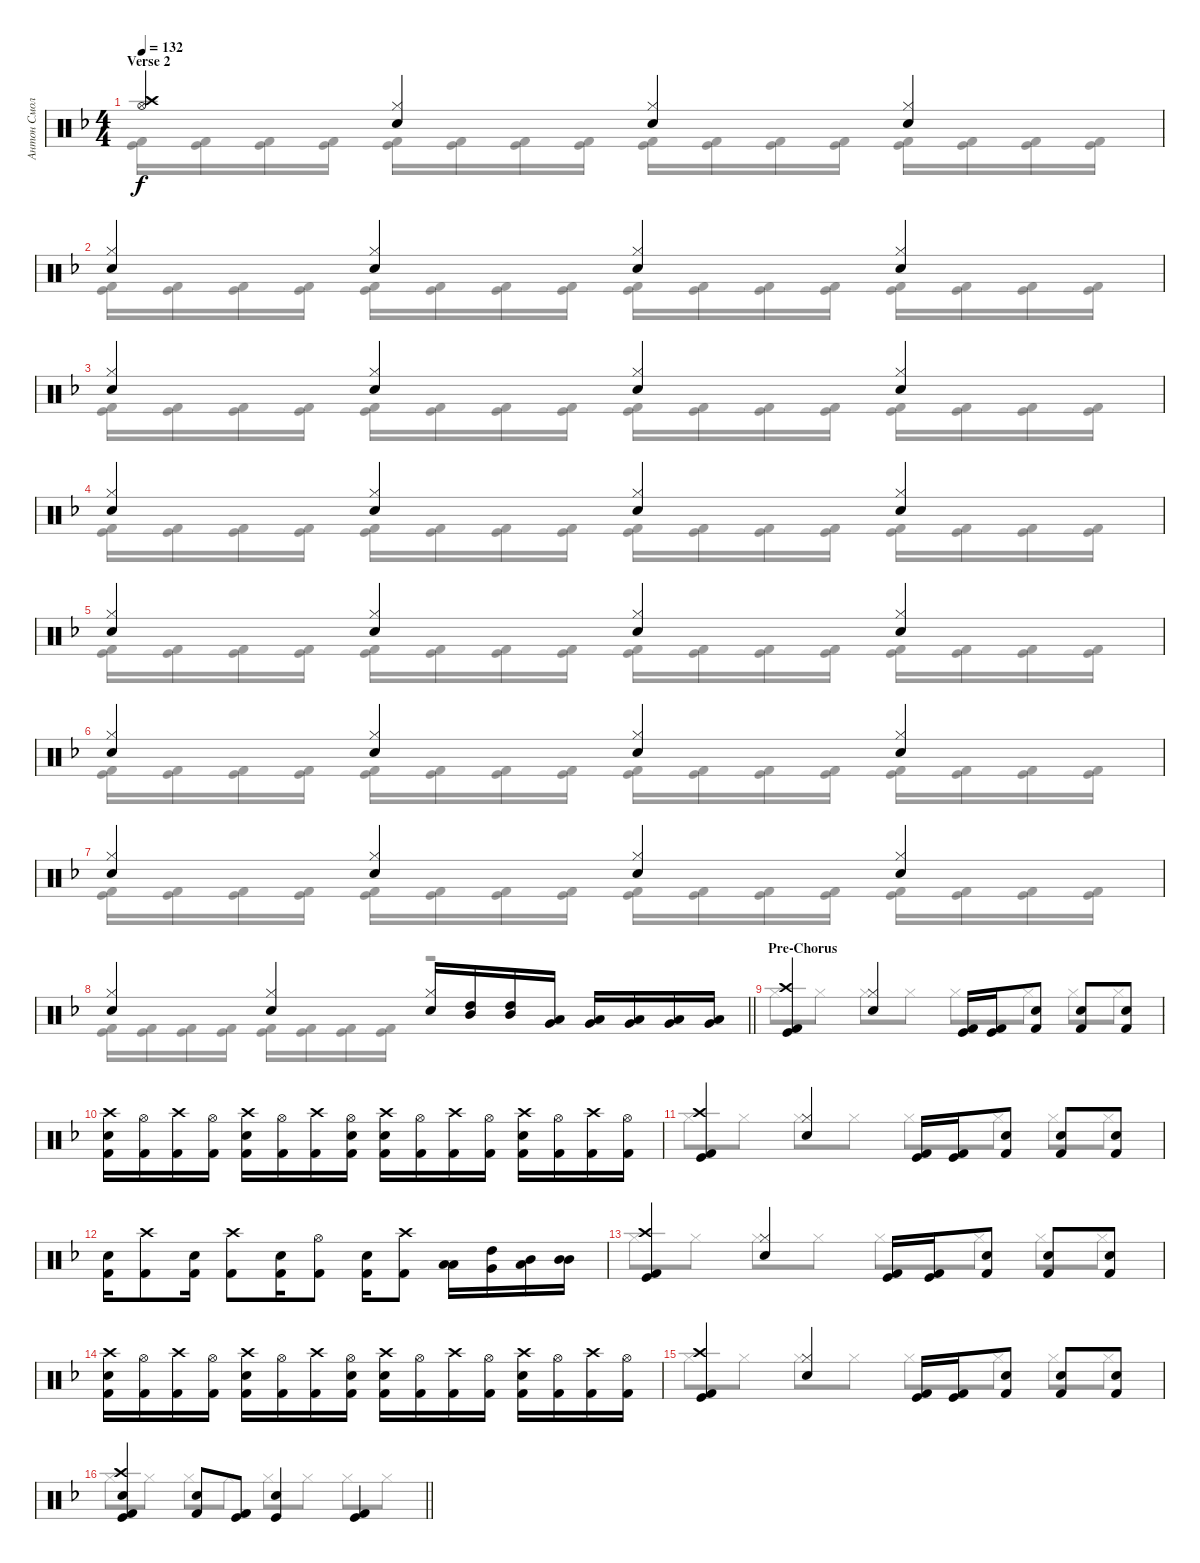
\track ("Антон Смольянин" "Антон Смол") {instrument percussion}
\staff {score}
\articulation defaults
\voice
\ts (4 4)
\section ("" "Verse 2")
\tempo 132
\clef neutral
\ks f
("Hi-Hat (open)" "Crash high (hit)").4{dy f} ("Hi-Hat (closed)" "Snare (hit) 2").4 ("Hi-Hat (closed)" "Snare (hit) 2").4 ("Hi-Hat (closed)" "Snare (hit) 2").4 |
("Hi-Hat (closed)" "Snare (hit) 2").4 ("Hi-Hat (closed)" "Snare (hit) 2").4 ("Hi-Hat (closed)" "Snare (hit) 2").4 ("Hi-Hat (closed)" "Snare (hit) 2").4 |
("Hi-Hat (closed)" "Snare (hit) 2").4 ("Hi-Hat (closed)" "Snare (hit) 2").4 ("Hi-Hat (closed)" "Snare (hit) 2").4 ("Hi-Hat (closed)" "Snare (hit) 2").4 |
("Hi-Hat (closed)" "Snare (hit) 2").4 ("Hi-Hat (closed)" "Snare (hit) 2").4 ("Hi-Hat (closed)" "Snare (hit) 2").4 ("Hi-Hat (closed)" "Snare (hit) 2").4 |
("Hi-Hat (closed)" "Snare (hit) 2").4 ("Hi-Hat (closed)" "Snare (hit) 2").4 ("Hi-Hat (closed)" "Snare (hit) 2").4 ("Hi-Hat (closed)" "Snare (hit) 2").4 |
("Hi-Hat (closed)" "Snare (hit) 2").4 ("Hi-Hat (closed)" "Snare (hit) 2").4 ("Hi-Hat (closed)" "Snare (hit) 2").4 ("Hi-Hat (closed)" "Snare (hit) 2").4 |
("Hi-Hat (closed)" "Snare (hit) 2").4 ("Hi-Hat (closed)" "Snare (hit) 2").4 ("Hi-Hat (closed)" "Snare (hit) 2").4 ("Hi-Hat (closed)" "Snare (hit) 2").4 |
\barLineRight lightlight
("Hi-Hat (closed)" "Snare (hit) 2").4 ("Hi-Hat (closed)" "Snare (hit) 2").4 ("Hi-Hat (closed)" "Snare (hit) 2").16 ("High Tom (hit)" "Mid Tom (hit)").16 ("Mid Tom (hit)" "High Tom (hit)").16 ("Low Tom (hit)" "Very Low Tom (hit)").16 ("Very Low Tom (hit)" "Low Tom (hit)").16 ("Very Low Tom (hit)" "Low Tom (hit)").16 ("Low Floor Tom (hit)" "Very Low Tom (hit)").16 ("Very Low Tom (hit)" "Low Tom (hit)").16 |
\section ("" "Pre-Chorus")
("Kick (hit) 2" "Kick (hit)" "Crash high (hit)").4 ("Hi-Hat (closed)" "Snare (hit) 2").4 ("Kick (hit) 2" "Kick (hit)").16 ("Kick (hit) 2" "Kick (hit)").16 ("Kick (hit) 2" "Snare (hit) 2").8 ("Kick (hit) 2" "Snare (hit) 2").8 ("Kick (hit) 2" "Snare (hit) 2").8 |
("Kick (hit) 2" "Snare (hit) 2" "Crash high (hit)").16 ("Kick (hit) 2" "Hi-Hat (open)").16 ("Kick (hit) 2" "Crash high (hit)").16 ("Kick (hit) 2" "Hi-Hat (open)").16 ("Kick (hit) 2" "Snare (hit) 2" "Crash high (hit)").16 ("Kick (hit) 2" "Hi-Hat (open)").16 ("Kick (hit) 2" "Crash high (hit)").16 ("Kick (hit) 2" "Snare (hit) 2" "Hi-Hat (open)").16 ("Kick (hit) 2" "Snare (hit) 2" "Crash high (hit)").16 ("Kick (hit) 2" "Hi-Hat (open)").16 ("Kick (hit) 2" "Crash high (hit)").16 ("Kick (hit) 2" "Hi-Hat (open)").16 ("Kick (hit) 2" "Snare (hit) 2" "Crash high (hit)").16 ("Kick (hit) 2" "Hi-Hat (open)").16 ("Kick (hit) 2" "Crash high (hit)").16 ("Kick (hit) 2" "Hi-Hat (open)").16 |
("Kick (hit) 2" "Kick (hit)" "Crash high (hit)").4 ("Hi-Hat (closed)" "Snare (hit) 2").4 ("Kick (hit) 2" "Kick (hit)").16 ("Kick (hit) 2" "Kick (hit)").16 ("Kick (hit) 2" "Snare (hit) 2").8 ("Kick (hit) 2" "Snare (hit) 2").8 ("Kick (hit) 2" "Snare (hit) 2").8 |
("Kick (hit) 2" "Snare (hit) 2").16 ("Kick (hit) 2" "Crash high (hit)").8 ("Kick (hit) 2" "Snare (hit) 2").16 ("Kick (hit) 2" "Crash high (hit)").8 ("Kick (hit) 2" "Snare (hit) 2").16 ("Kick (hit) 2" "Hi-Hat (open)").8 ("Kick (hit) 2" "Snare (hit) 2").16 ("Kick (hit) 2" "Crash high (hit)").8 ("Low Tom (hit)" "Low Floor Tom (hit)").16 ("High Tom (hit)" "Very Low Tom (hit)").16 ("Mid Tom (hit)" "Low Floor Tom (hit)").16 ("Mid Tom (hit)" "Mid Tom (hit)").16 |
("Kick (hit) 2" "Kick (hit)" "Crash high (hit)").4 ("Hi-Hat (closed)" "Snare (hit) 2").4 ("Kick (hit) 2" "Kick (hit)").16 ("Kick (hit) 2" "Kick (hit)").16 ("Kick (hit) 2" "Snare (hit) 2").8 ("Kick (hit) 2" "Snare (hit) 2").8 ("Kick (hit) 2" "Snare (hit) 2").8 |
("Kick (hit) 2" "Snare (hit) 2" "Crash high (hit)").16 ("Kick (hit) 2" "Hi-Hat (open)").16 ("Kick (hit) 2" "Crash high (hit)").16 ("Kick (hit) 2" "Hi-Hat (open)").16 ("Kick (hit) 2" "Snare (hit) 2" "Crash high (hit)").16 ("Kick (hit) 2" "Hi-Hat (open)").16 ("Kick (hit) 2" "Crash high (hit)").16 ("Kick (hit) 2" "Snare (hit) 2" "Hi-Hat (open)").16 ("Kick (hit) 2" "Snare (hit) 2" "Crash high (hit)").16 ("Kick (hit) 2" "Hi-Hat (open)").16 ("Kick (hit) 2" "Crash high (hit)").16 ("Kick (hit) 2" "Hi-Hat (open)").16 ("Kick (hit) 2" "Snare (hit) 2" "Crash high (hit)").16 ("Kick (hit) 2" "Hi-Hat (open)").16 ("Kick (hit) 2" "Crash high (hit)").16 ("Kick (hit) 2" "Hi-Hat (open)").16 |
("Kick (hit) 2" "Kick (hit)" "Crash high (hit)").4 ("Hi-Hat (closed)" "Snare (hit) 2").4 ("Kick (hit) 2" "Kick (hit)").16 ("Kick (hit) 2" "Kick (hit)").16 ("Kick (hit) 2" "Snare (hit) 2").8 ("Kick (hit) 2" "Snare (hit) 2").8 ("Kick (hit) 2" "Snare (hit) 2").8 |
\barLineRight lightlight
("Kick (hit) 2" "Kick (hit)" "Snare (hit) 2" "Crash high (hit)").4 ("Kick (hit) 2" "Snare (hit) 2").8 ("Kick (hit) 2" "Kick (hit)").8 ("Snare (hit) 2" "Kick (hit)").4 ("Kick (hit) 2" "Kick (hit)").4
\voice
\clef neutral
\ottava regular
\simile none
\ks f
("Kick (hit) 2" "Kick (hit)").16{dy f} ("Kick (hit) 2" "Kick (hit)").16 ("Kick (hit) 2" "Kick (hit)").16 ("Kick (hit) 2" "Kick (hit)").16 ("Kick (hit) 2" "Kick (hit)").16 ("Kick (hit) 2" "Kick (hit)").16 ("Kick (hit) 2" "Kick (hit)").16 ("Kick (hit) 2" "Kick (hit)").16 ("Kick (hit) 2" "Kick (hit)").16 ("Kick (hit) 2" "Kick (hit)").16 ("Kick (hit) 2" "Kick (hit)").16 ("Kick (hit) 2" "Kick (hit)").16 ("Kick (hit) 2" "Kick (hit)").16 ("Kick (hit) 2" "Kick (hit)").16 ("Kick (hit) 2" "Kick (hit)").16 ("Kick (hit) 2" "Kick (hit)").16 |
("Kick (hit) 2" "Kick (hit)").16 ("Kick (hit) 2" "Kick (hit)").16 ("Kick (hit) 2" "Kick (hit)").16 ("Kick (hit) 2" "Kick (hit)").16 ("Kick (hit) 2" "Kick (hit)").16 ("Kick (hit) 2" "Kick (hit)").16 ("Kick (hit) 2" "Kick (hit)").16 ("Kick (hit) 2" "Kick (hit)").16 ("Kick (hit) 2" "Kick (hit)").16 ("Kick (hit) 2" "Kick (hit)").16 ("Kick (hit) 2" "Kick (hit)").16 ("Kick (hit) 2" "Kick (hit)").16 ("Kick (hit) 2" "Kick (hit)").16 ("Kick (hit) 2" "Kick (hit)").16 ("Kick (hit) 2" "Kick (hit)").16 ("Kick (hit) 2" "Kick (hit)").16 |
("Kick (hit) 2" "Kick (hit)").16 ("Kick (hit) 2" "Kick (hit)").16 ("Kick (hit) 2" "Kick (hit)").16 ("Kick (hit) 2" "Kick (hit)").16 ("Kick (hit) 2" "Kick (hit)").16 ("Kick (hit) 2" "Kick (hit)").16 ("Kick (hit) 2" "Kick (hit)").16 ("Kick (hit) 2" "Kick (hit)").16 ("Kick (hit) 2" "Kick (hit)").16 ("Kick (hit) 2" "Kick (hit)").16 ("Kick (hit) 2" "Kick (hit)").16 ("Kick (hit) 2" "Kick (hit)").16 ("Kick (hit) 2" "Kick (hit)").16 ("Kick (hit) 2" "Kick (hit)").16 ("Kick (hit) 2" "Kick (hit)").16 ("Kick (hit) 2" "Kick (hit)").16 |
("Kick (hit) 2" "Kick (hit)").16 ("Kick (hit) 2" "Kick (hit)").16 ("Kick (hit) 2" "Kick (hit)").16 ("Kick (hit) 2" "Kick (hit)").16 ("Kick (hit) 2" "Kick (hit)").16 ("Kick (hit) 2" "Kick (hit)").16 ("Kick (hit) 2" "Kick (hit)").16 ("Kick (hit) 2" "Kick (hit)").16 ("Kick (hit) 2" "Kick (hit)").16 ("Kick (hit) 2" "Kick (hit)").16 ("Kick (hit) 2" "Kick (hit)").16 ("Kick (hit) 2" "Kick (hit)").16 ("Kick (hit) 2" "Kick (hit)").16 ("Kick (hit) 2" "Kick (hit)").16 ("Kick (hit) 2" "Kick (hit)").16 ("Kick (hit) 2" "Kick (hit)").16 |
("Kick (hit) 2" "Kick (hit)").16 ("Kick (hit) 2" "Kick (hit)").16 ("Kick (hit) 2" "Kick (hit)").16 ("Kick (hit) 2" "Kick (hit)").16 ("Kick (hit) 2" "Kick (hit)").16 ("Kick (hit) 2" "Kick (hit)").16 ("Kick (hit) 2" "Kick (hit)").16 ("Kick (hit) 2" "Kick (hit)").16 ("Kick (hit) 2" "Kick (hit)").16 ("Kick (hit) 2" "Kick (hit)").16 ("Kick (hit) 2" "Kick (hit)").16 ("Kick (hit) 2" "Kick (hit)").16 ("Kick (hit) 2" "Kick (hit)").16 ("Kick (hit) 2" "Kick (hit)").16 ("Kick (hit) 2" "Kick (hit)").16 ("Kick (hit) 2" "Kick (hit)").16 |
("Kick (hit) 2" "Kick (hit)").16 ("Kick (hit) 2" "Kick (hit)").16 ("Kick (hit) 2" "Kick (hit)").16 ("Kick (hit) 2" "Kick (hit)").16 ("Kick (hit) 2" "Kick (hit)").16 ("Kick (hit) 2" "Kick (hit)").16 ("Kick (hit) 2" "Kick (hit)").16 ("Kick (hit) 2" "Kick (hit)").16 ("Kick (hit) 2" "Kick (hit)").16 ("Kick (hit) 2" "Kick (hit)").16 ("Kick (hit) 2" "Kick (hit)").16 ("Kick (hit) 2" "Kick (hit)").16 ("Kick (hit) 2" "Kick (hit)").16 ("Kick (hit) 2" "Kick (hit)").16 ("Kick (hit) 2" "Kick (hit)").16 ("Kick (hit) 2" "Kick (hit)").16 |
("Kick (hit) 2" "Kick (hit)").16 ("Kick (hit) 2" "Kick (hit)").16 ("Kick (hit) 2" "Kick (hit)").16 ("Kick (hit) 2" "Kick (hit)").16 ("Kick (hit) 2" "Kick (hit)").16 ("Kick (hit) 2" "Kick (hit)").16 ("Kick (hit) 2" "Kick (hit)").16 ("Kick (hit) 2" "Kick (hit)").16 ("Kick (hit) 2" "Kick (hit)").16 ("Kick (hit) 2" "Kick (hit)").16 ("Kick (hit) 2" "Kick (hit)").16 ("Kick (hit) 2" "Kick (hit)").16 ("Kick (hit) 2" "Kick (hit)").16 ("Kick (hit) 2" "Kick (hit)").16 ("Kick (hit) 2" "Kick (hit)").16 ("Kick (hit) 2" "Kick (hit)").16 |
\barLineRight lightlight
("Kick (hit) 2" "Kick (hit)").16 ("Kick (hit) 2" "Kick (hit)").16 ("Kick (hit) 2" "Kick (hit)").16 ("Kick (hit) 2" "Kick (hit)").16 ("Kick (hit) 2" "Kick (hit)").16 ("Kick (hit) 2" "Kick (hit)").16 ("Kick (hit) 2" "Kick (hit)").16 ("Kick (hit) 2" "Kick (hit)").16 r.2 |
"Hi-Hat (closed)".8 "Hi-Hat (closed)".8 "Hi-Hat (closed)".8 "Hi-Hat (closed)".8 "Hi-Hat (closed)".8 "Hi-Hat (closed)".8 "Hi-Hat (closed)".8 "Hi-Hat (closed)".8 |
|
"Hi-Hat (closed)".8 "Hi-Hat (closed)".8 "Hi-Hat (closed)".8 "Hi-Hat (closed)".8 "Hi-Hat (closed)".8 "Hi-Hat (closed)".8 "Hi-Hat (closed)".8 "Hi-Hat (closed)".8 |
|
"Hi-Hat (closed)".8 "Hi-Hat (closed)".8 "Hi-Hat (closed)".8 "Hi-Hat (closed)".8 "Hi-Hat (closed)".8 "Hi-Hat (closed)".8 "Hi-Hat (closed)".8 "Hi-Hat (closed)".8 |
|
"Hi-Hat (closed)".8 "Hi-Hat (closed)".8 "Hi-Hat (closed)".8 "Hi-Hat (closed)".8 "Hi-Hat (closed)".8 "Hi-Hat (closed)".8 "Hi-Hat (closed)".8 "Hi-Hat (closed)".8 |
\barLineRight lightlight "Hi-Hat (closed)".8 "Hi-Hat (closed)".8 "Hi-Hat (closed)".8 "Hi-Hat (closed)".8 "Hi-Hat (closed)".8 "Hi-Hat (closed)".8 "Hi-Hat (closed)".8 "Hi-Hat (closed)".8
